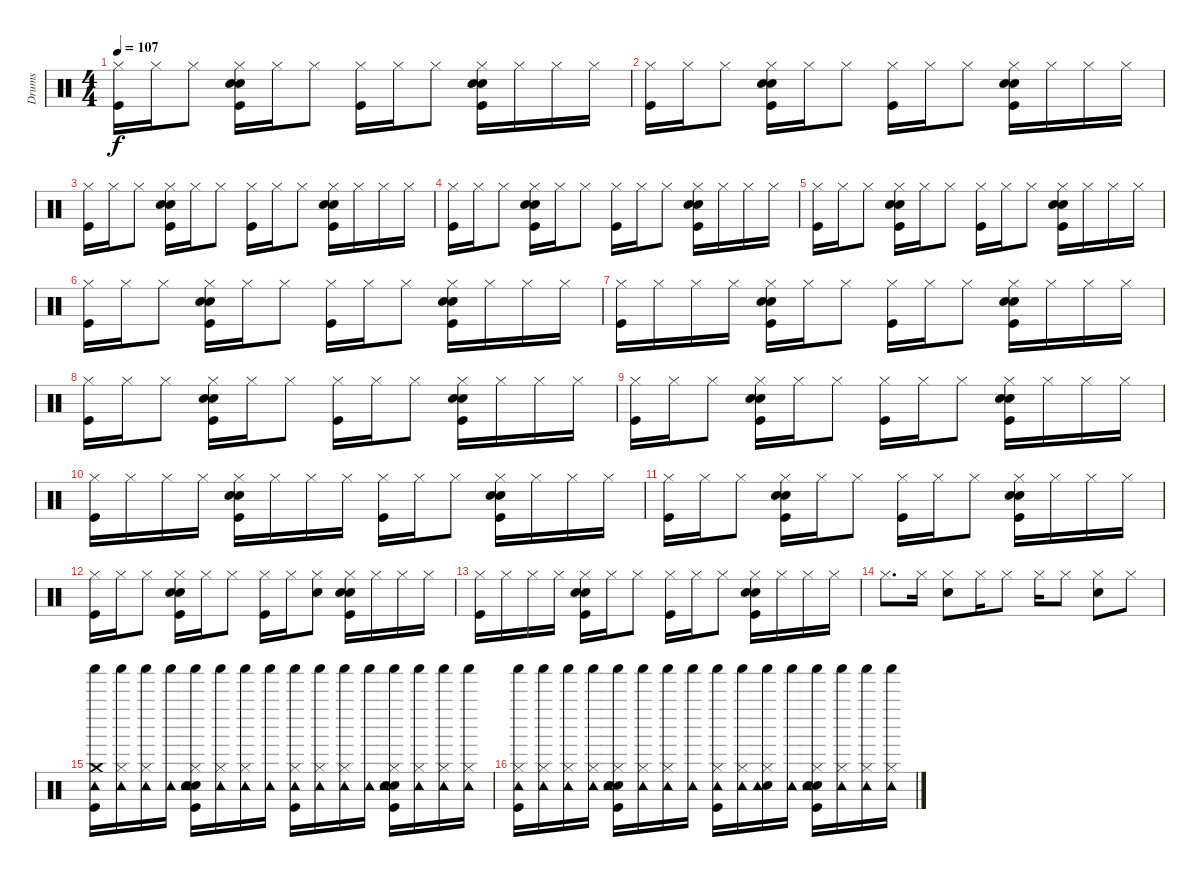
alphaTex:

\track ("Drums" "Drums") {instrument percussion}
\staff {score}
\articulation defaults
\ts (4 4)
\tempo 107
\clef neutral
\ks c
("Kick (hit)" "Hi-Hat (closed)").16{dy f} "Hi-Hat (closed)".16 "Hi-Hat (closed)".8 ("Kick (hit)" "Snare (hit) 2" "Hand Clap (hit)" "Hi-Hat (closed)").16 "Hi-Hat (closed)".16 "Hi-Hat (closed)".8 ("Kick (hit)" "Hi-Hat (closed)").16 "Hi-Hat (closed)".16 "Hi-Hat (closed)".8 ("Kick (hit)" "Snare (hit) 2" "Hand Clap (hit)" "Hi-Hat (closed)").16 "Hi-Hat (closed)".16 "Hi-Hat (closed)".16 "Hi-Hat (closed)".16 |
("Kick (hit)" "Hi-Hat (closed)").16 "Hi-Hat (closed)".16 "Hi-Hat (closed)".8 ("Kick (hit)" "Snare (hit) 2" "Hand Clap (hit)" "Hi-Hat (closed)").16 "Hi-Hat (closed)".16 "Hi-Hat (closed)".8 ("Kick (hit)" "Hi-Hat (closed)").16 "Hi-Hat (closed)".16 "Hi-Hat (closed)".8 ("Kick (hit)" "Snare (hit) 2" "Hand Clap (hit)" "Hi-Hat (closed)").16 "Hi-Hat (closed)".16 "Hi-Hat (closed)".16 "Hi-Hat (closed)".16 |
("Kick (hit)" "Hi-Hat (closed)").16 "Hi-Hat (closed)".16 "Hi-Hat (closed)".8 ("Kick (hit)" "Snare (hit) 2" "Hand Clap (hit)" "Hi-Hat (closed)").16 "Hi-Hat (closed)".16 "Hi-Hat (closed)".8 ("Kick (hit)" "Hi-Hat (closed)").16 "Hi-Hat (closed)".16 "Hi-Hat (closed)".8 ("Kick (hit)" "Snare (hit) 2" "Hand Clap (hit)" "Hi-Hat (closed)").16 "Hi-Hat (closed)".16 "Hi-Hat (closed)".16 "Hi-Hat (closed)".16 |
("Kick (hit)" "Hi-Hat (closed)").16 "Hi-Hat (closed)".16 "Hi-Hat (closed)".8 ("Kick (hit)" "Snare (hit) 2" "Hand Clap (hit)" "Hi-Hat (closed)").16 "Hi-Hat (closed)".16 "Hi-Hat (closed)".8 ("Kick (hit)" "Hi-Hat (closed)").16 "Hi-Hat (closed)".16 "Hi-Hat (closed)".8 ("Kick (hit)" "Snare (hit) 2" "Hand Clap (hit)" "Hi-Hat (closed)").16 "Hi-Hat (closed)".16 "Hi-Hat (closed)".16 "Hi-Hat (closed)".16 |
("Kick (hit)" "Hi-Hat (closed)").16 "Hi-Hat (closed)".16 "Hi-Hat (closed)".8 ("Kick (hit)" "Snare (hit) 2" "Hand Clap (hit)" "Hi-Hat (closed)").16 "Hi-Hat (closed)".16 "Hi-Hat (closed)".8 ("Kick (hit)" "Hi-Hat (closed)").16 "Hi-Hat (closed)".16 "Hi-Hat (closed)".8 ("Kick (hit)" "Snare (hit) 2" "Hand Clap (hit)" "Hi-Hat (closed)").16 "Hi-Hat (closed)".16 "Hi-Hat (closed)".16 "Hi-Hat (closed)".16 |
("Kick (hit)" "Hi-Hat (closed)").16 "Hi-Hat (closed)".16 "Hi-Hat (closed)".8 ("Kick (hit)" "Snare (hit) 2" "Hand Clap (hit)" "Hi-Hat (closed)").16 "Hi-Hat (closed)".16 "Hi-Hat (closed)".8 ("Kick (hit)" "Hi-Hat (closed)").16 "Hi-Hat (closed)".16 "Hi-Hat (closed)".8 ("Kick (hit)" "Snare (hit) 2" "Hand Clap (hit)" "Hi-Hat (closed)").16 "Hi-Hat (closed)".16 "Hi-Hat (closed)".16 "Hi-Hat (closed)".16 |
("Kick (hit)" "Hi-Hat (closed)").16 "Hi-Hat (closed)".16 "Hi-Hat (closed)".16 "Hi-Hat (closed)".16 ("Kick (hit)" "Snare (hit) 2" "Hand Clap (hit)" "Hi-Hat (closed)").16 "Hi-Hat (closed)".16 "Hi-Hat (closed)".8 ("Kick (hit)" "Hi-Hat (closed)").16 "Hi-Hat (closed)".16 "Hi-Hat (closed)".8 ("Kick (hit)" "Snare (hit) 2" "Hand Clap (hit)" "Hi-Hat (closed)").16 "Hi-Hat (closed)".16 "Hi-Hat (closed)".16 "Hi-Hat (closed)".16 |
("Kick (hit)" "Hi-Hat (closed)").16 "Hi-Hat (closed)".16 "Hi-Hat (closed)".8 ("Kick (hit)" "Snare (hit) 2" "Hand Clap (hit)" "Hi-Hat (closed)").16 "Hi-Hat (closed)".16 "Hi-Hat (closed)".8 ("Kick (hit)" "Hi-Hat (closed)").16 "Hi-Hat (closed)".16 "Hi-Hat (closed)".8 ("Kick (hit)" "Snare (hit) 2" "Hand Clap (hit)" "Hi-Hat (closed)").16 "Hi-Hat (closed)".16 "Hi-Hat (closed)".16 "Hi-Hat (closed)".16 |
("Kick (hit)" "Hi-Hat (closed)").16 "Hi-Hat (closed)".16 "Hi-Hat (closed)".8 ("Kick (hit)" "Snare (hit) 2" "Hand Clap (hit)" "Hi-Hat (closed)").16 "Hi-Hat (closed)".16 "Hi-Hat (closed)".8 ("Kick (hit)" "Hi-Hat (closed)").16 "Hi-Hat (closed)".16 "Hi-Hat (closed)".8 ("Kick (hit)" "Snare (hit) 2" "Hand Clap (hit)" "Hi-Hat (closed)").16 "Hi-Hat (closed)".16 "Hi-Hat (closed)".16 "Hi-Hat (closed)".16 |
("Kick (hit)" "Hi-Hat (closed)").16 "Hi-Hat (closed)".16 "Hi-Hat (closed)".16 "Hi-Hat (closed)".16 ("Kick (hit)" "Snare (hit) 2" "Hand Clap (hit)" "Hi-Hat (closed)").16 "Hi-Hat (closed)".16 "Hi-Hat (closed)".16 "Hi-Hat (closed)".16 ("Kick (hit)" "Hi-Hat (closed)").16 "Hi-Hat (closed)".16 "Hi-Hat (closed)".8 ("Kick (hit)" "Snare (hit) 2" "Hand Clap (hit)" "Hi-Hat (closed)").16 "Hi-Hat (closed)".16 "Hi-Hat (closed)".16 "Hi-Hat (closed)".16 |
("Kick (hit)" "Hi-Hat (closed)").16 "Hi-Hat (closed)".16 "Hi-Hat (closed)".8 ("Kick (hit)" "Snare (hit) 2" "Hand Clap (hit)" "Hi-Hat (closed)").16 "Hi-Hat (closed)".16 "Hi-Hat (closed)".8 ("Kick (hit)" "Hi-Hat (closed)").16 "Hi-Hat (closed)".16 "Hi-Hat (closed)".8 ("Kick (hit)" "Snare (hit) 2" "Hand Clap (hit)" "Hi-Hat (closed)").16 "Hi-Hat (closed)".16 "Hi-Hat (closed)".16 "Hi-Hat (closed)".16 |
("Kick (hit)" "Hi-Hat (closed)").16 "Hi-Hat (closed)".16 "Hi-Hat (closed)".8 ("Kick (hit)" "Snare (hit) 2" "Hand Clap (hit)" "Hi-Hat (closed)").16 "Hi-Hat (closed)".16 "Hi-Hat (closed)".8 ("Kick (hit)" "Hi-Hat (closed)").16 "Hi-Hat (closed)".16 ("Hand Clap (hit)" "Hi-Hat (closed)").8 ("Kick (hit)" "Snare (hit) 2" "Hand Clap (hit)" "Hi-Hat (closed)").16 "Hi-Hat (closed)".16 "Hi-Hat (closed)".16 "Hi-Hat (closed)".16 |
("Kick (hit)" "Hi-Hat (closed)").16 "Hi-Hat (closed)".16 "Hi-Hat (closed)".16 "Hi-Hat (closed)".16 ("Kick (hit)" "Snare (hit) 2" "Hand Clap (hit)" "Hi-Hat (closed)").16 "Hi-Hat (closed)".16 "Hi-Hat (closed)".8 ("Kick (hit)" "Hi-Hat (closed)").16 "Hi-Hat (closed)".16 "Hi-Hat (closed)".8 ("Kick (hit)" "Snare (hit) 2" "Hand Clap (hit)" "Hi-Hat (closed)").16 "Hi-Hat (closed)".16 "Hi-Hat (closed)".16 "Hi-Hat (closed)".16 |
"Hi-Hat (closed)".8{d} "Hi-Hat (closed)".16 ("Hand Clap (hit)" "Hi-Hat (closed)").8 "Hi-Hat (closed)".16 "Hi-Hat (closed)".8 "Hi-Hat (closed)".16 "Hi-Hat (closed)".8 ("Hand Clap (hit)" "Hi-Hat (closed)").8 "Hi-Hat (closed)".8 |
("Kick (hit)" "Tambourine (hit)" "Crash medium (hit)" "Shaker (hit)").16 ("Hi-Hat (closed)" "Tambourine (hit)" "Shaker (hit)").16 ("Hi-Hat (closed)" "Tambourine (hit)" "Shaker (hit)").16 ("Tambourine (hit)" "Shaker (hit)").16 ("Kick (hit)" "Snare (hit) 2" "Hand Clap (hit)" "Hi-Hat (closed)" "Tambourine (hit)" "Shaker (hit)").16 ("Hi-Hat (closed)" "Tambourine (hit)" "Shaker (hit)").16 ("Hi-Hat (closed)" "Tambourine (hit)" "Shaker (hit)").16 ("Tambourine (hit)" "Shaker (hit)").16 ("Kick (hit)" "Hi-Hat (closed)" "Tambourine (hit)" "Shaker (hit)").16 ("Hi-Hat (closed)" "Tambourine (hit)" "Shaker (hit)").16 ("Hi-Hat (closed)" "Tambourine (hit)" "Shaker (hit)").16 ("Tambourine (hit)" "Shaker (hit)").16 ("Kick (hit)" "Snare (hit) 2" "Hand Clap (hit)" "Hi-Hat (closed)" "Tambourine (hit)" "Shaker (hit)").16 ("Hi-Hat (closed)" "Tambourine (hit)" "Shaker (hit)").16 ("Hi-Hat (closed)" "Tambourine (hit)" "Shaker (hit)").16 ("Hi-Hat (closed)" "Tambourine (hit)" "Shaker (hit)").16 |
("Kick (hit)" "Hi-Hat (closed)" "Tambourine (hit)" "Shaker (hit)").16 ("Hi-Hat (closed)" "Tambourine (hit)" "Shaker (hit)").16 ("Hi-Hat (closed)" "Tambourine (hit)" "Shaker (hit)").16 ("Hi-Hat (closed)" "Tambourine (hit)" "Shaker (hit)").16 ("Kick (hit)" "Snare (hit) 2" "Hand Clap (hit)" "Hi-Hat (closed)" "Tambourine (hit)" "Shaker (hit)").16 ("Hi-Hat (closed)" "Tambourine (hit)" "Shaker (hit)").16 ("Hi-Hat (closed)" "Tambourine (hit)" "Shaker (hit)").16 ("Tambourine (hit)" "Shaker (hit)").16 ("Kick (hit)" "Hi-Hat (closed)" "Tambourine (hit)" "Shaker (hit)").16 ("Hi-Hat (closed)" "Tambourine (hit)" "Shaker (hit)").16 ("Hand Clap (hit)" "Hi-Hat (closed)" "Tambourine (hit)" "Shaker (hit)").16 ("Tambourine (hit)" "Shaker (hit)").16 ("Kick (hit)" "Snare (hit) 2" "Hand Clap (hit)" "Hi-Hat (closed)" "Tambourine (hit)" "Shaker (hit)").16 ("Hi-Hat (closed)" "Tambourine (hit)" "Shaker (hit)").16 ("Hi-Hat (closed)" "Tambourine (hit)" "Shaker (hit)").16 ("Hi-Hat (closed)" "Tambourine (hit)" "Shaker (hit)").16
